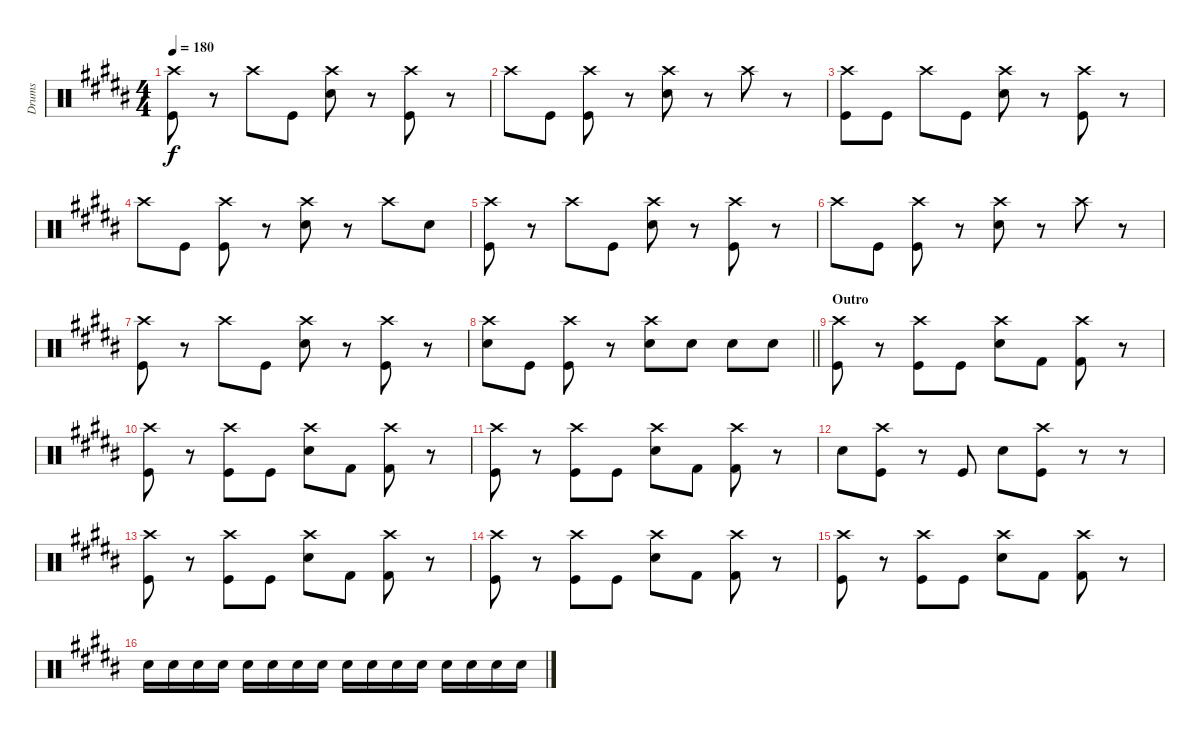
\track ("Drums" "Drums") {instrument percussion}
\staff {score}
\articulation defaults
\ts (4 4)
\tempo 180
\clef neutral
\ks b
("Crash high (hit)" "Kick (hit)").8{dy f} r.8 "Crash high (hit)".8 "Kick (hit)".8 ("Crash high (hit)" "Snare (hit) 2").8 r.8 ("Crash high (hit)" "Kick (hit)").8 r.8 |
"Crash high (hit)".8 "Kick (hit)".8 ("Crash high (hit)" "Kick (hit)").8 r.8 ("Crash high (hit)" "Snare (hit) 2").8 r.8 "Crash high (hit)".8 r.8 |
("Crash high (hit)" "Kick (hit)").8 "Kick (hit)".8 "Crash high (hit)".8 "Kick (hit)".8 ("Crash high (hit)" "Snare (hit) 2").8 r.8 ("Crash high (hit)" "Kick (hit)").8 r.8 |
"Crash high (hit)".8 "Kick (hit)".8 ("Crash high (hit)" "Kick (hit)").8 r.8 ("Crash high (hit)" "Snare (hit) 2").8 r.8 "Crash high (hit)".8 "Snare (hit) 2".8 |
("Crash high (hit)" "Kick (hit)").8 r.8 "Crash high (hit)".8 "Kick (hit)".8 ("Crash high (hit)" "Snare (hit) 2").8 r.8 ("Crash high (hit)" "Kick (hit)").8 r.8 |
"Crash high (hit)".8 "Kick (hit)".8 ("Crash high (hit)" "Kick (hit)").8 r.8 ("Crash high (hit)" "Snare (hit) 2").8 r.8 "Crash high (hit)".8 r.8 |
("Crash high (hit)" "Kick (hit)").8 r.8 "Crash high (hit)".8 "Kick (hit)".8 ("Crash high (hit)" "Snare (hit) 2").8 r.8 ("Crash high (hit)" "Kick (hit)").8 r.8 |
\barLineRight lightlight
("Crash high (hit)" "Snare (hit) 2").8 "Kick (hit)".8 ("Crash high (hit)" "Kick (hit)").8 r.8 ("Crash high (hit)" "Snare (hit) 2").8 "Snare (hit) 2".8 "Snare (hit) 2".8 "Snare (hit) 2".8 |
\section ("" "Outro")
("Crash high (hit)" "Kick (hit)").8 r.8 ("Crash high (hit)" "Kick (hit)").8 "Kick (hit)".8 ("Crash high (hit)" "Snare (hit) 2").8 "Kick (hit) 2".8 ("Crash high (hit)" "Kick (hit) 2").8 r.8 |
("Crash high (hit)" "Kick (hit)").8 r.8 ("Crash high (hit)" "Kick (hit)").8 "Kick (hit)".8 ("Crash high (hit)" "Snare (hit) 2").8 "Kick (hit) 2".8 ("Crash high (hit)" "Kick (hit) 2").8 r.8 |
("Crash high (hit)" "Kick (hit)").8 r.8 ("Crash high (hit)" "Kick (hit)").8 "Kick (hit)".8 ("Crash high (hit)" "Snare (hit) 2").8 "Kick (hit) 2".8 ("Crash high (hit)" "Kick (hit) 2").8 r.8 |
"Snare (hit) 2".8 ("Crash high (hit)" "Kick (hit)").8 r.8 "Kick (hit)".8 "Snare (hit) 2".8 ("Crash high (hit)" "Kick (hit)").8 r.8 r.8 |
("Crash high (hit)" "Kick (hit)").8 r.8 ("Crash high (hit)" "Kick (hit)").8 "Kick (hit)".8 ("Crash high (hit)" "Snare (hit) 2").8 "Kick (hit) 2".8 ("Crash high (hit)" "Kick (hit) 2").8 r.8 |
("Crash high (hit)" "Kick (hit)").8 r.8 ("Crash high (hit)" "Kick (hit)").8 "Kick (hit)".8 ("Crash high (hit)" "Snare (hit) 2").8 "Kick (hit) 2".8 ("Crash high (hit)" "Kick (hit) 2").8 r.8 |
("Crash high (hit)" "Kick (hit)").8 r.8 ("Crash high (hit)" "Kick (hit)").8 "Kick (hit)".8 ("Crash high (hit)" "Snare (hit) 2").8 "Kick (hit) 2".8 ("Crash high (hit)" "Kick (hit) 2").8 r.8 |
"Snare (hit) 2".16 "Snare (hit) 2".16 "Snare (hit) 2".16 "Snare (hit) 2".16 "Snare (hit) 2".16 "Snare (hit) 2".16 "Snare (hit) 2".16 "Snare (hit) 2".16 "Snare (hit) 2".16 "Snare (hit) 2".16 "Snare (hit) 2".16 "Snare (hit) 2".16 "Snare (hit) 2".16 "Snare (hit) 2".16 "Snare (hit) 2".16 "Snare (hit) 2".16
